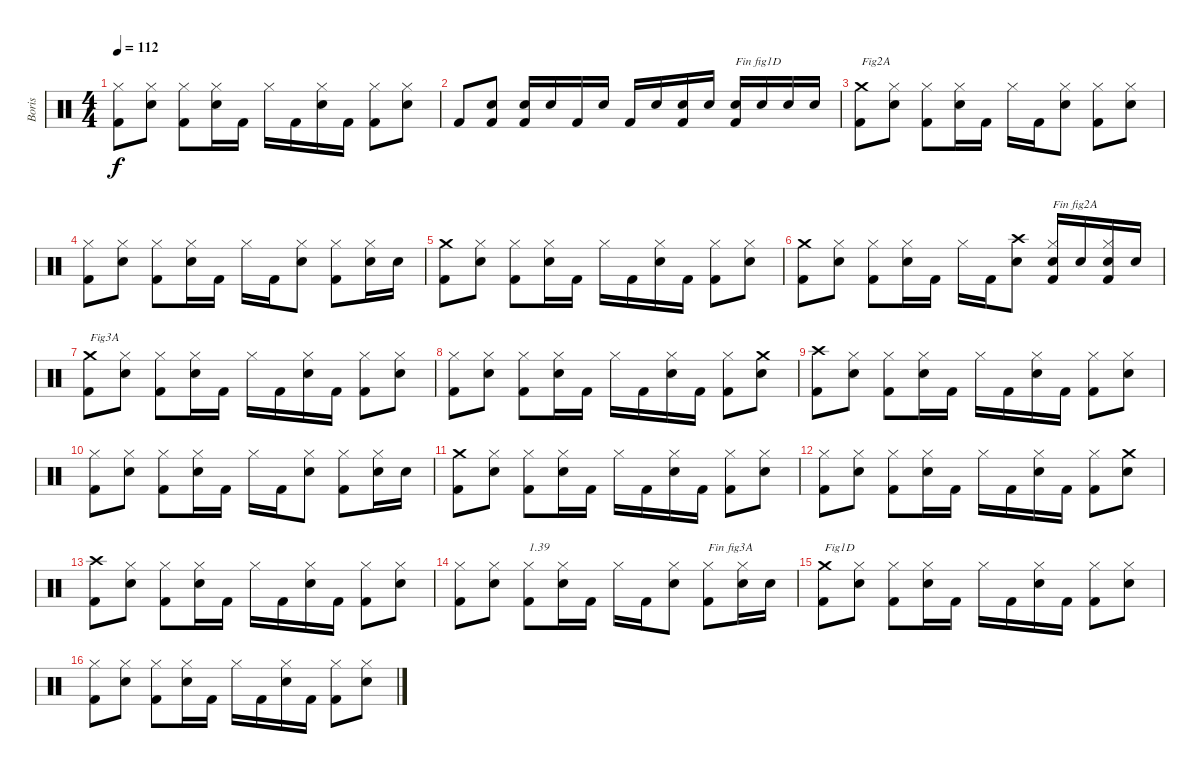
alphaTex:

\track ("Boris" "Boris") {instrument percussion}
\staff {score}
\articulation defaults
\ts (4 4)
\tempo 112
\clef neutral
\ks c
("Kick (hit) 2" "Hi-Hat (closed)").8{dy f} ("Electric Snare (hit)" "Hi-Hat (closed)").8 ("Kick (hit) 2" "Hi-Hat (closed)").8 ("Electric Snare (hit)" "Hi-Hat (closed)").16 "Kick (hit) 2".16 "Hi-Hat (closed)".16 "Kick (hit) 2".16 ("Electric Snare (hit)" "Hi-Hat (closed)").16 "Kick (hit) 2".16 ("Kick (hit) 2" "Hi-Hat (closed)").8 ("Electric Snare (hit)" "Hi-Hat (closed)").8 |
"Kick (hit) 2".8 ("Kick (hit) 2" "Electric Snare (hit)").8 ("Kick (hit) 2" "Electric Snare (hit)").16 "Electric Snare (hit)".16 "Kick (hit) 2".16 "Electric Snare (hit)".16 "Kick (hit) 2".16 "Electric Snare (hit)".16 ("Kick (hit) 2" "Electric Snare (hit)").16 "Electric Snare (hit)".16 ("Kick (hit) 2" "Electric Snare (hit)").16{txt "Fin fig1D"} "Electric Snare (hit)".16 "Electric Snare (hit)".16 "Electric Snare (hit)".16 |
("Kick (hit) 2" "Crash medium (hit)").8{txt "Fig2A"} ("Electric Snare (hit)" "Hi-Hat (closed)").8 ("Kick (hit) 2" "Hi-Hat (closed)").8 ("Electric Snare (hit)" "Hi-Hat (closed)").16 "Kick (hit) 2".16 "Hi-Hat (closed)".16 "Kick (hit) 2".16 ("Electric Snare (hit)" "Hi-Hat (closed)").8 ("Kick (hit) 2" "Hi-Hat (closed)").8 ("Electric Snare (hit)" "Hi-Hat (closed)").8 |
("Kick (hit) 2" "Hi-Hat (closed)").8 ("Electric Snare (hit)" "Hi-Hat (closed)").8 ("Kick (hit) 2" "Hi-Hat (closed)").8 ("Electric Snare (hit)" "Hi-Hat (closed)").16 "Kick (hit) 2".16 "Hi-Hat (closed)".16 "Kick (hit) 2".16 ("Electric Snare (hit)" "Hi-Hat (closed)").8 ("Kick (hit) 2" "Hi-Hat (closed)").8 ("Electric Snare (hit)" "Hi-Hat (closed)").16 "Electric Snare (hit)".16 |
("Kick (hit) 2" "Crash medium (hit)").8 ("Electric Snare (hit)" "Hi-Hat (closed)").8 ("Kick (hit) 2" "Hi-Hat (closed)").8 ("Electric Snare (hit)" "Hi-Hat (closed)").16 "Kick (hit) 2".16 "Hi-Hat (closed)".16 "Kick (hit) 2".16 ("Electric Snare (hit)" "Hi-Hat (closed)").16 "Kick (hit) 2".16 ("Kick (hit) 2" "Hi-Hat (closed)").8 ("Electric Snare (hit)" "Hi-Hat (closed)").8 |
("Kick (hit) 2" "Crash medium (hit)").8 ("Electric Snare (hit)" "Hi-Hat (closed)").8 ("Kick (hit) 2" "Hi-Hat (closed)").8 ("Electric Snare (hit)" "Hi-Hat (closed)").16 "Kick (hit) 2".16 "Hi-Hat (closed)".16 "Kick (hit) 2".16 ("Electric Snare (hit)" "Crash high (hit)").8 ("Kick (hit) 2" "Electric Snare (hit)" "Hi-Hat (closed)").16{txt "Fin fig2A"} "Electric Snare (hit)".16 ("Kick (hit) 2" "Electric Snare (hit)" "Hi-Hat (closed)").16 "Electric Snare (hit)".16 |
("Kick (hit) 2" "Crash medium (hit)").8{txt "Fig3A"} ("Electric Snare (hit)" "Hi-Hat (closed)").8 ("Kick (hit) 2" "Hi-Hat (closed)").8 ("Electric Snare (hit)" "Hi-Hat (closed)").16 "Kick (hit) 2".16 "Hi-Hat (closed)".16 "Kick (hit) 2".16 ("Electric Snare (hit)" "Hi-Hat (closed)").16 "Kick (hit) 2".16 ("Kick (hit) 2" "Hi-Hat (closed)").8 ("Electric Snare (hit)" "Hi-Hat (closed)").8 |
("Kick (hit) 2" "Hi-Hat (closed)").8 ("Electric Snare (hit)" "Hi-Hat (closed)").8 ("Kick (hit) 2" "Hi-Hat (closed)").8 ("Electric Snare (hit)" "Hi-Hat (closed)").16 "Kick (hit) 2".16 "Hi-Hat (closed)".16 "Kick (hit) 2".16 ("Electric Snare (hit)" "Hi-Hat (closed)").16 "Kick (hit) 2".16 ("Kick (hit) 2" "Hi-Hat (closed)").8 ("Electric Snare (hit)" "Crash medium (hit)").8 |
("Kick (hit) 2" "Crash high (hit)").8 ("Electric Snare (hit)" "Hi-Hat (closed)").8 ("Kick (hit) 2" "Hi-Hat (closed)").8 ("Electric Snare (hit)" "Hi-Hat (closed)").16 "Kick (hit) 2".16 "Hi-Hat (closed)".16 "Kick (hit) 2".16 ("Electric Snare (hit)" "Hi-Hat (closed)").16 "Kick (hit) 2".16 ("Kick (hit) 2" "Hi-Hat (closed)").8 ("Electric Snare (hit)" "Hi-Hat (closed)").8 |
("Kick (hit) 2" "Hi-Hat (closed)").8 ("Electric Snare (hit)" "Hi-Hat (closed)").8 ("Kick (hit) 2" "Hi-Hat (closed)").8 ("Electric Snare (hit)" "Hi-Hat (closed)").16 "Kick (hit) 2".16 "Hi-Hat (closed)".16 "Kick (hit) 2".16 ("Electric Snare (hit)" "Hi-Hat (closed)").8 ("Kick (hit) 2" "Hi-Hat (closed)").8 ("Electric Snare (hit)" "Hi-Hat (closed)").16 "Electric Snare (hit)".16 |
("Kick (hit) 2" "Crash medium (hit)").8 ("Electric Snare (hit)" "Hi-Hat (closed)").8 ("Kick (hit) 2" "Hi-Hat (closed)").8 ("Electric Snare (hit)" "Hi-Hat (closed)").16 "Kick (hit) 2".16 "Hi-Hat (closed)".16 "Kick (hit) 2".16 ("Electric Snare (hit)" "Hi-Hat (closed)").16 "Kick (hit) 2".16 ("Kick (hit) 2" "Hi-Hat (closed)").8 ("Electric Snare (hit)" "Hi-Hat (closed)").8 |
("Kick (hit) 2" "Hi-Hat (closed)").8 ("Electric Snare (hit)" "Hi-Hat (closed)").8 ("Kick (hit) 2" "Hi-Hat (closed)").8 ("Electric Snare (hit)" "Hi-Hat (closed)").16 "Kick (hit) 2".16 "Hi-Hat (closed)".16 "Kick (hit) 2".16 ("Electric Snare (hit)" "Hi-Hat (closed)").16 "Kick (hit) 2".16 ("Kick (hit) 2" "Hi-Hat (closed)").8 ("Electric Snare (hit)" "Crash medium (hit)").8 |
("Kick (hit) 2" "Crash high (hit)").8 ("Electric Snare (hit)" "Hi-Hat (closed)").8 ("Kick (hit) 2" "Hi-Hat (closed)").8 ("Electric Snare (hit)" "Hi-Hat (closed)").16 "Kick (hit) 2".16 "Hi-Hat (closed)".16 "Kick (hit) 2".16 ("Electric Snare (hit)" "Hi-Hat (closed)").16 "Kick (hit) 2".16 ("Kick (hit) 2" "Hi-Hat (closed)").8 ("Electric Snare (hit)" "Hi-Hat (closed)").8 |
("Kick (hit) 2" "Hi-Hat (closed)").8 ("Electric Snare (hit)" "Hi-Hat (closed)").8 ("Kick (hit) 2" "Hi-Hat (closed)").8{txt "1.39"} ("Electric Snare (hit)" "Hi-Hat (closed)").16 "Kick (hit) 2".16 "Hi-Hat (closed)".16 "Kick (hit) 2".16 ("Electric Snare (hit)" "Hi-Hat (closed)").8 ("Kick (hit) 2" "Hi-Hat (closed)").8{txt "Fin fig3A"} ("Electric Snare (hit)" "Hi-Hat (closed)").16 "Electric Snare (hit)".16 |
("Kick (hit) 2" "Crash medium (hit)").8{txt "Fig1D"} ("Electric Snare (hit)" "Hi-Hat (closed)").8 ("Kick (hit) 2" "Hi-Hat (closed)").8 ("Electric Snare (hit)" "Hi-Hat (closed)").16 "Kick (hit) 2".16 "Hi-Hat (closed)".16 "Kick (hit) 2".16 ("Electric Snare (hit)" "Hi-Hat (closed)").16 "Kick (hit) 2".16 ("Kick (hit) 2" "Hi-Hat (closed)").8 ("Electric Snare (hit)" "Hi-Hat (closed)").8 |
("Kick (hit) 2" "Hi-Hat (closed)").8 ("Electric Snare (hit)" "Hi-Hat (closed)").8 ("Kick (hit) 2" "Hi-Hat (closed)").8 ("Electric Snare (hit)" "Hi-Hat (closed)").16 "Kick (hit) 2".16 "Hi-Hat (closed)".16 "Kick (hit) 2".16 ("Electric Snare (hit)" "Hi-Hat (closed)").16 "Kick (hit) 2".16 ("Kick (hit) 2" "Hi-Hat (closed)").8 ("Electric Snare (hit)" "Hi-Hat (closed)").8
